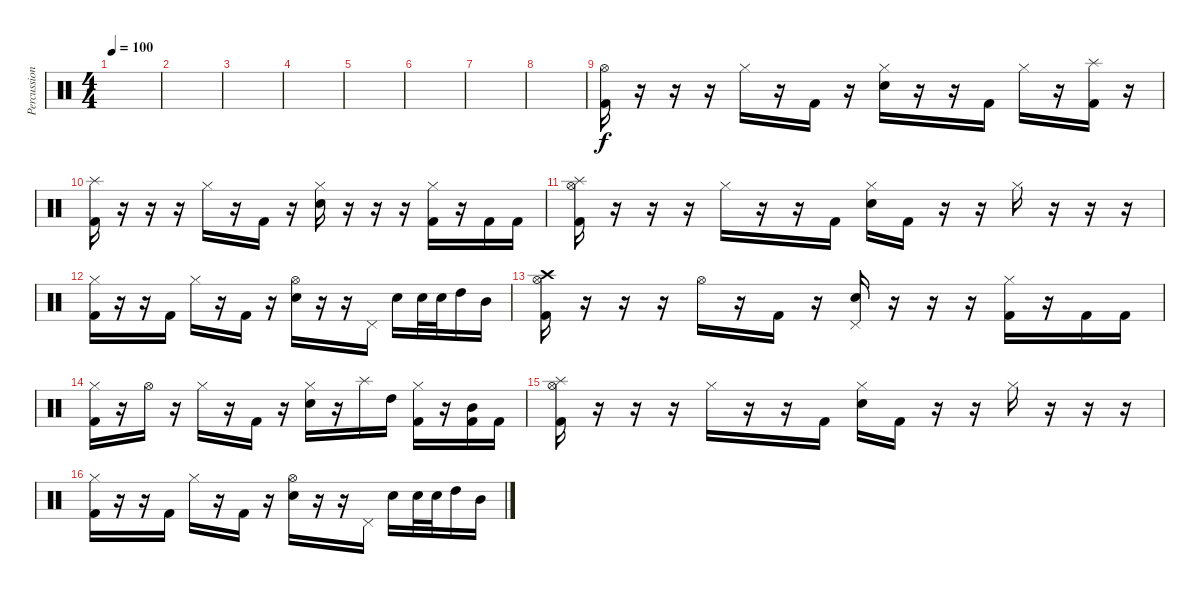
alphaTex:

\track ("Percussion" "Percussion") {instrument percussion}
\staff {score}
\articulation defaults
\ts (4 4)
\tempo 100
\clef neutral
\ks c
|
|
|
|
|
|
|
|
("Hi-Hat (open)" "Kick (hit) 2").16 r.16 r.16 r.16 "Hi-Hat (closed)".16 r.16 "Kick (hit) 2".16 r.16 ("Hi-Hat (closed)" "Electric Snare (hit)").16 r.16 r.16 "Kick (hit) 2".16 "Hi-Hat (closed)".16 r.16 ("Splash (hit)" "Kick (hit) 2").16 r.16 |
("Splash (hit)" "Kick (hit) 2").16 r.16 r.16 r.16 "Hi-Hat (closed)".16 r.16 "Kick (hit) 2".16 r.16 ("Hi-Hat (closed)" "Electric Snare (hit)").16 r.16 r.16 r.16 ("Hi-Hat (closed)" "Kick (hit) 2").16 r.16 "Kick (hit) 2".16 "Kick (hit) 2".16 |
("Hi-Hat (open)" "Splash (hit)" "Kick (hit) 2").16 r.16 r.16 r.16 "Hi-Hat (closed)".16 r.16 r.16 "Kick (hit) 2".16 ("Hi-Hat (closed)" "Electric Snare (hit)").16 "Kick (hit) 2".16 r.16 r.16 "Hi-Hat (closed)".16 r.16 r.16 r.16 |
("Hi-Hat (closed)" "Kick (hit) 2").16 r.16 r.16 "Kick (hit) 2".16 "Hi-Hat (closed)".16 r.16 "Kick (hit) 2".16 r.16 ("Hi-Hat (open)" "Electric Snare (hit)").16 r.16 r.16 "Pedal Hi-Hat (hit)".16 "Electric Snare (hit)".16 "Electric Snare (hit)".32 "Electric Snare (hit)".32 "High Tom (hit)".16 "Mid Tom (hit)".16 |
("Crash high (hit)" "Hi-Hat (open)" "Kick (hit) 2").16 r.16 r.16 r.16 "Hi-Hat (open)".16 r.16 "Kick (hit) 2".16 r.16 ("Pedal Hi-Hat (hit)" "Electric Snare (hit)").16 r.16 r.16 r.16 ("Hi-Hat (closed)" "Kick (hit) 2").16 r.16 "Kick (hit) 2".16 "Kick (hit) 2".16 |
("Hi-Hat (closed)" "Kick (hit) 2").16 r.16 "Hi-Hat (open)".16 r.16 "Hi-Hat (closed)".16 r.16 "Kick (hit) 2".16 r.16 ("Hi-Hat (closed)" "Electric Snare (hit)").16 r.16 "Splash (hit)".16 "High Tom (hit)".16 ("Hi-Hat (closed)" "Kick (hit) 2").16 r.16 ("Mid Tom (hit)" "Kick (hit) 2").16 "Kick (hit) 2".16 |
("Hi-Hat (open)" "Splash (hit)" "Kick (hit) 2").16 r.16 r.16 r.16 "Hi-Hat (closed)".16 r.16 r.16 "Kick (hit) 2".16 ("Hi-Hat (closed)" "Electric Snare (hit)").16 "Kick (hit) 2".16 r.16 r.16 "Hi-Hat (closed)".16 r.16 r.16 r.16 |
("Hi-Hat (closed)" "Kick (hit) 2").16 r.16 r.16 "Kick (hit) 2".16 "Hi-Hat (closed)".16 r.16 "Kick (hit) 2".16 r.16 ("Hi-Hat (open)" "Electric Snare (hit)").16 r.16 r.16 "Pedal Hi-Hat (hit)".16 "Electric Snare (hit)".16 "Electric Snare (hit)".32 "Electric Snare (hit)".32 "High Tom (hit)".16 "Mid Tom (hit)".16
